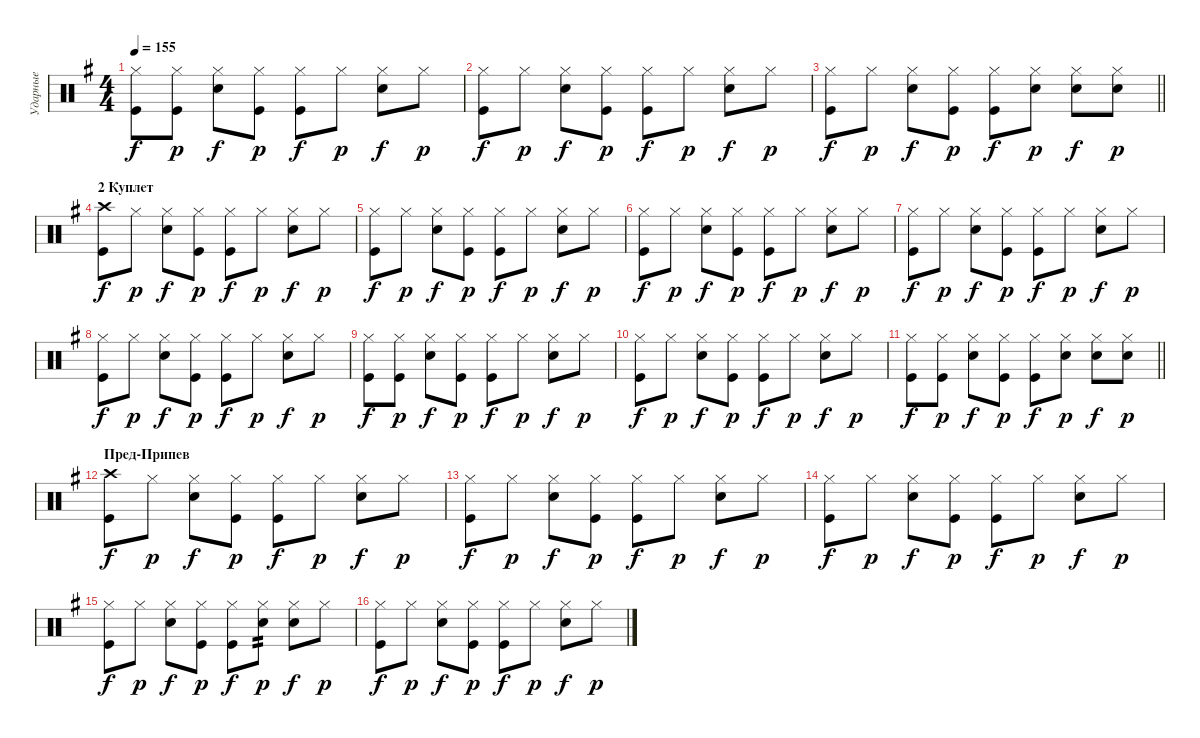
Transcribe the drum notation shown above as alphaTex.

\track ("Ударные" "Ударные") {instrument percussion}
\staff {score}
\articulation defaults
\ts (4 4)
\tempo 155
\clef neutral
\ks eminor
("Hi-Hat (closed)" "Kick (hit)").8{dy f} ("Hi-Hat (closed)" "Kick (hit)").8{dy p} ("Hi-Hat (closed)" "Snare (hit) 2").8{dy f} ("Hi-Hat (closed)" "Kick (hit)").8{dy p} ("Hi-Hat (closed)" "Kick (hit)").8{dy f} "Hi-Hat (closed)".8{dy p} ("Hi-Hat (closed)" "Snare (hit) 2").8{dy f} "Hi-Hat (closed)".8{dy p} |
("Hi-Hat (closed)" "Kick (hit)").8{dy f} "Hi-Hat (closed)".8{dy p} ("Hi-Hat (closed)" "Snare (hit) 2").8{dy f} ("Hi-Hat (closed)" "Kick (hit)").8{dy p} ("Hi-Hat (closed)" "Kick (hit)").8{dy f} "Hi-Hat (closed)".8{dy p} ("Hi-Hat (closed)" "Snare (hit) 2").8{dy f} "Hi-Hat (closed)".8{dy p} |
\barLineRight lightlight
("Hi-Hat (closed)" "Kick (hit)").8{dy f} "Hi-Hat (closed)".8{dy p} ("Hi-Hat (closed)" "Snare (hit) 2").8{dy f} ("Hi-Hat (closed)" "Kick (hit)").8{dy p} ("Hi-Hat (closed)" "Kick (hit)").8{dy f} ("Hi-Hat (closed)" "Snare (hit) 2").8{dy p} ("Hi-Hat (closed)" "Snare (hit) 2").8{dy f} ("Hi-Hat (closed)" "Snare (hit) 2").8{dy p} |
\section ("" "2 Куплет")
("Crash high (hit)" "Kick (hit)").8{dy f} "Hi-Hat (closed)".8{dy p} ("Hi-Hat (closed)" "Snare (hit) 2").8{dy f} ("Hi-Hat (closed)" "Kick (hit)").8{dy p} ("Hi-Hat (closed)" "Kick (hit)").8{dy f} "Hi-Hat (closed)".8{dy p} ("Hi-Hat (closed)" "Snare (hit) 2").8{dy f} "Hi-Hat (closed)".8{dy p} |
("Hi-Hat (closed)" "Kick (hit)").8{dy f} "Hi-Hat (closed)".8{dy p} ("Hi-Hat (closed)" "Snare (hit) 2").8{dy f} ("Hi-Hat (closed)" "Kick (hit)").8{dy p} ("Hi-Hat (closed)" "Kick (hit)").8{dy f} "Hi-Hat (closed)".8{dy p} ("Hi-Hat (closed)" "Snare (hit) 2").8{dy f} "Hi-Hat (closed)".8{dy p} |
("Hi-Hat (closed)" "Kick (hit)").8{dy f} "Hi-Hat (closed)".8{dy p} ("Hi-Hat (closed)" "Snare (hit) 2").8{dy f} ("Hi-Hat (closed)" "Kick (hit)").8{dy p} ("Hi-Hat (closed)" "Kick (hit)").8{dy f} "Hi-Hat (closed)".8{dy p} ("Hi-Hat (closed)" "Snare (hit) 2").8{dy f} "Hi-Hat (closed)".8{dy p} |
("Hi-Hat (closed)" "Kick (hit)").8{dy f} "Hi-Hat (closed)".8{dy p} ("Hi-Hat (closed)" "Snare (hit) 2").8{dy f} ("Hi-Hat (closed)" "Kick (hit)").8{dy p} ("Hi-Hat (closed)" "Kick (hit)").8{dy f} "Hi-Hat (closed)".8{dy p} ("Hi-Hat (closed)" "Snare (hit) 2").8{dy f} "Hi-Hat (closed)".8{dy p} |
("Hi-Hat (closed)" "Kick (hit)").8{dy f} "Hi-Hat (closed)".8{dy p} ("Hi-Hat (closed)" "Snare (hit) 2").8{dy f} ("Hi-Hat (closed)" "Kick (hit)").8{dy p} ("Hi-Hat (closed)" "Kick (hit)").8{dy f} "Hi-Hat (closed)".8{dy p} ("Hi-Hat (closed)" "Snare (hit) 2").8{dy f} "Hi-Hat (closed)".8{dy p} |
("Hi-Hat (closed)" "Kick (hit)").8{dy f} ("Hi-Hat (closed)" "Kick (hit)").8{dy p} ("Hi-Hat (closed)" "Snare (hit) 2").8{dy f} ("Hi-Hat (closed)" "Kick (hit)").8{dy p} ("Hi-Hat (closed)" "Kick (hit)").8{dy f} "Hi-Hat (closed)".8{dy p} ("Hi-Hat (closed)" "Snare (hit) 2").8{dy f} "Hi-Hat (closed)".8{dy p} |
("Hi-Hat (closed)" "Kick (hit)").8{dy f} "Hi-Hat (closed)".8{dy p} ("Hi-Hat (closed)" "Snare (hit) 2").8{dy f} ("Hi-Hat (closed)" "Kick (hit)").8{dy p} ("Hi-Hat (closed)" "Kick (hit)").8{dy f} "Hi-Hat (closed)".8{dy p} ("Hi-Hat (closed)" "Snare (hit) 2").8{dy f} "Hi-Hat (closed)".8{dy p} |
\barLineRight lightlight
("Hi-Hat (closed)" "Kick (hit)").8{dy f} ("Hi-Hat (closed)" "Kick (hit)").8{dy p} ("Hi-Hat (closed)" "Snare (hit) 2").8{dy f} ("Hi-Hat (closed)" "Kick (hit)").8{dy p} ("Hi-Hat (closed)" "Kick (hit)").8{dy f} ("Hi-Hat (closed)" "Snare (hit) 2").8{dy p} ("Hi-Hat (closed)" "Snare (hit) 2").8{dy f} ("Hi-Hat (closed)" "Snare (hit) 2").8{dy p} |
\section ("" "Пред-Припев")
("Crash high (hit)" "Kick (hit)").8{dy f} "Hi-Hat (closed)".8{dy p} ("Hi-Hat (closed)" "Snare (hit) 2").8{dy f} ("Hi-Hat (closed)" "Kick (hit)").8{dy p} ("Hi-Hat (closed)" "Kick (hit)").8{dy f} "Hi-Hat (closed)".8{dy p} ("Hi-Hat (closed)" "Snare (hit) 2").8{dy f} "Hi-Hat (closed)".8{dy p} |
("Hi-Hat (closed)" "Kick (hit)").8{dy f} "Hi-Hat (closed)".8{dy p} ("Hi-Hat (closed)" "Snare (hit) 2").8{dy f} ("Hi-Hat (closed)" "Kick (hit)").8{dy p} ("Hi-Hat (closed)" "Kick (hit)").8{dy f} "Hi-Hat (closed)".8{dy p} ("Hi-Hat (closed)" "Snare (hit) 2").8{dy f} "Hi-Hat (closed)".8{dy p} |
("Hi-Hat (closed)" "Kick (hit)").8{dy f} "Hi-Hat (closed)".8{dy p} ("Hi-Hat (closed)" "Snare (hit) 2").8{dy f} ("Hi-Hat (closed)" "Kick (hit)").8{dy p} ("Hi-Hat (closed)" "Kick (hit)").8{dy f} "Hi-Hat (closed)".8{dy p} ("Hi-Hat (closed)" "Snare (hit) 2").8{dy f} "Hi-Hat (closed)".8{dy p} |
("Hi-Hat (closed)" "Kick (hit)").8{dy f} "Hi-Hat (closed)".8{dy p} ("Hi-Hat (closed)" "Snare (hit) 2").8{dy f} ("Hi-Hat (closed)" "Kick (hit)").8{dy p} ("Hi-Hat (closed)" "Kick (hit)").8{dy f} ("Hi-Hat (closed)" "Snare (hit) 2").8{tp 2 dy p} ("Hi-Hat (closed)" "Snare (hit) 2").8{dy f} "Hi-Hat (closed)".8{dy p} |
("Hi-Hat (closed)" "Kick (hit)").8{dy f} "Hi-Hat (closed)".8{dy p} ("Hi-Hat (closed)" "Snare (hit) 2").8{dy f} ("Hi-Hat (closed)" "Kick (hit)").8{dy p} ("Hi-Hat (closed)" "Kick (hit)").8{dy f} "Hi-Hat (closed)".8{dy p} ("Hi-Hat (closed)" "Snare (hit) 2").8{dy f} "Hi-Hat (closed)".8{dy p}
